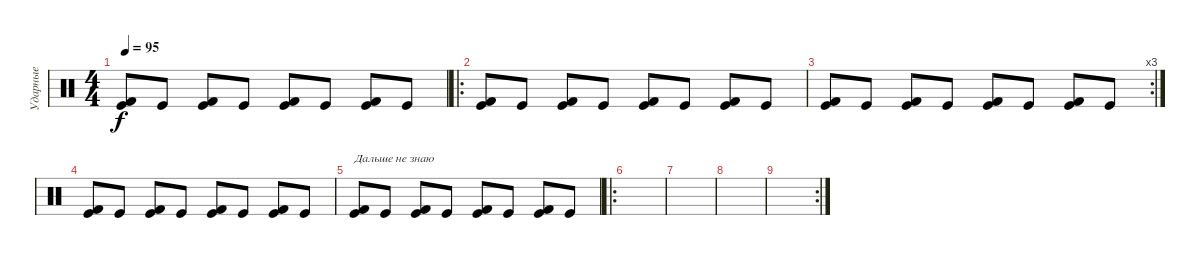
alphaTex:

\track ("Ударные" "Ударные") {instrument percussion}
\staff {score}
\articulation defaults
\ts (4 4)
\tempo 95
\clef neutral
\ks c
("Kick (hit)" "Kick (hit) 2").8{dy f} "Kick (hit)".8 ("Kick (hit)" "Kick (hit) 2").8 "Kick (hit)".8 ("Kick (hit)" "Kick (hit) 2").8 "Kick (hit)".8 ("Kick (hit)" "Kick (hit) 2").8 "Kick (hit)".8 |
\ro
("Kick (hit)" "Kick (hit) 2").8 "Kick (hit)".8 ("Kick (hit)" "Kick (hit) 2").8 "Kick (hit)".8 ("Kick (hit)" "Kick (hit) 2").8 "Kick (hit)".8 ("Kick (hit)" "Kick (hit) 2").8 "Kick (hit)".8 |
\rc 3
("Kick (hit)" "Kick (hit) 2").8 "Kick (hit)".8 ("Kick (hit)" "Kick (hit) 2").8 "Kick (hit)".8 ("Kick (hit)" "Kick (hit) 2").8 "Kick (hit)".8 ("Kick (hit)" "Kick (hit) 2").8 "Kick (hit)".8 |
("Kick (hit)" "Kick (hit) 2").8 "Kick (hit)".8 ("Kick (hit)" "Kick (hit) 2").8 "Kick (hit)".8 ("Kick (hit)" "Kick (hit) 2").8 "Kick (hit)".8 ("Kick (hit)" "Kick (hit) 2").8 "Kick (hit)".8 |
("Kick (hit)" "Kick (hit) 2").8{txt "Дальше не знаю"} "Kick (hit)".8 ("Kick (hit)" "Kick (hit) 2").8 "Kick (hit)".8 ("Kick (hit)" "Kick (hit) 2").8 "Kick (hit)".8 ("Kick (hit)" "Kick (hit) 2").8 "Kick (hit)".8 |
\ro
|
|
|
\rc 2
